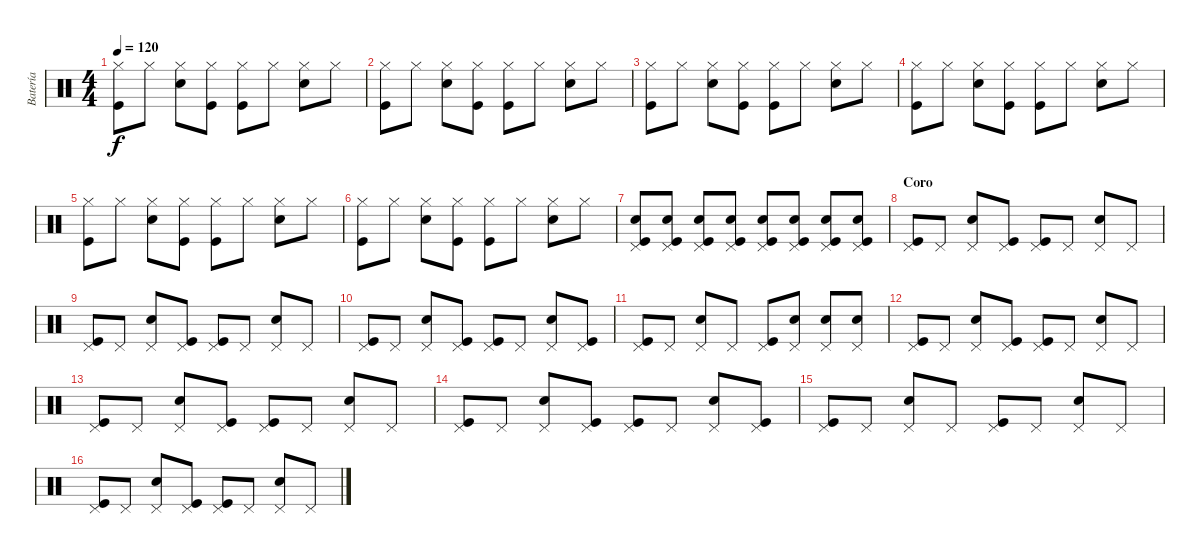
\track ("Batería" "Batería") {instrument percussion}
\staff {score}
\articulation defaults
\ts (4 4)
\tempo 120
\clef neutral
\ks c
("Hi-Hat (closed)" "Kick (hit)").8{dy f} "Hi-Hat (closed)".8 ("Hi-Hat (closed)" "Electric Snare (hit)").8 ("Hi-Hat (closed)" "Kick (hit)").8 ("Hi-Hat (closed)" "Kick (hit)").8 "Hi-Hat (closed)".8 ("Hi-Hat (closed)" "Electric Snare (hit)").8 "Hi-Hat (closed)".8 |
("Hi-Hat (closed)" "Kick (hit)").8 "Hi-Hat (closed)".8 ("Hi-Hat (closed)" "Electric Snare (hit)").8 ("Hi-Hat (closed)" "Kick (hit)").8 ("Hi-Hat (closed)" "Kick (hit)").8 "Hi-Hat (closed)".8 ("Hi-Hat (closed)" "Electric Snare (hit)").8 "Hi-Hat (closed)".8 |
("Hi-Hat (closed)" "Kick (hit)").8 "Hi-Hat (closed)".8 ("Hi-Hat (closed)" "Electric Snare (hit)").8 ("Hi-Hat (closed)" "Kick (hit)").8 ("Hi-Hat (closed)" "Kick (hit)").8 "Hi-Hat (closed)".8 ("Hi-Hat (closed)" "Electric Snare (hit)").8 "Hi-Hat (closed)".8 |
("Hi-Hat (closed)" "Kick (hit)").8 "Hi-Hat (closed)".8 ("Hi-Hat (closed)" "Electric Snare (hit)").8 ("Hi-Hat (closed)" "Kick (hit)").8 ("Hi-Hat (closed)" "Kick (hit)").8 "Hi-Hat (closed)".8 ("Hi-Hat (closed)" "Electric Snare (hit)").8 "Hi-Hat (closed)".8 |
("Hi-Hat (closed)" "Kick (hit)").8 "Hi-Hat (closed)".8 ("Hi-Hat (closed)" "Electric Snare (hit)").8 ("Hi-Hat (closed)" "Kick (hit)").8 ("Hi-Hat (closed)" "Kick (hit)").8 "Hi-Hat (closed)".8 ("Hi-Hat (closed)" "Electric Snare (hit)").8 "Hi-Hat (closed)".8 |
("Hi-Hat (closed)" "Kick (hit)").8 "Hi-Hat (closed)".8 ("Hi-Hat (closed)" "Electric Snare (hit)").8 ("Hi-Hat (closed)" "Kick (hit)").8 ("Hi-Hat (closed)" "Kick (hit)").8 "Hi-Hat (closed)".8 ("Hi-Hat (closed)" "Electric Snare (hit)").8 "Hi-Hat (closed)".8{volume 7} |
("Pedal Hi-Hat (hit)" "Electric Snare (hit)" "Kick (hit)").8{volume 13} ("Pedal Hi-Hat (hit)" "Electric Snare (hit)" "Kick (hit)").8 ("Pedal Hi-Hat (hit)" "Electric Snare (hit)" "Kick (hit)").8 ("Pedal Hi-Hat (hit)" "Electric Snare (hit)" "Kick (hit)").8 ("Pedal Hi-Hat (hit)" "Electric Snare (hit)" "Kick (hit)").8 ("Pedal Hi-Hat (hit)" "Electric Snare (hit)" "Kick (hit)").8 ("Pedal Hi-Hat (hit)" "Electric Snare (hit)" "Kick (hit)").8 ("Pedal Hi-Hat (hit)" "Electric Snare (hit)" "Kick (hit)").8 |
\section ("" "Coro")
("Pedal Hi-Hat (hit)" "Kick (hit)").8 "Pedal Hi-Hat (hit)".8 ("Pedal Hi-Hat (hit)" "Electric Snare (hit)").8 ("Pedal Hi-Hat (hit)" "Kick (hit)").8 ("Pedal Hi-Hat (hit)" "Kick (hit)").8 "Pedal Hi-Hat (hit)".8 ("Pedal Hi-Hat (hit)" "Electric Snare (hit)").8 "Pedal Hi-Hat (hit)".8 |
("Pedal Hi-Hat (hit)" "Kick (hit)").8 "Pedal Hi-Hat (hit)".8 ("Pedal Hi-Hat (hit)" "Electric Snare (hit)").8 ("Pedal Hi-Hat (hit)" "Kick (hit)").8 ("Pedal Hi-Hat (hit)" "Kick (hit)").8 "Pedal Hi-Hat (hit)".8 ("Pedal Hi-Hat (hit)" "Electric Snare (hit)").8 "Pedal Hi-Hat (hit)".8 |
("Pedal Hi-Hat (hit)" "Kick (hit)").8 "Pedal Hi-Hat (hit)".8 ("Pedal Hi-Hat (hit)" "Electric Snare (hit)").8 ("Pedal Hi-Hat (hit)" "Kick (hit)").8 ("Pedal Hi-Hat (hit)" "Kick (hit)").8 "Pedal Hi-Hat (hit)".8 ("Pedal Hi-Hat (hit)" "Electric Snare (hit)").8 ("Pedal Hi-Hat (hit)" "Kick (hit)").8 |
("Pedal Hi-Hat (hit)" "Kick (hit)").8 "Pedal Hi-Hat (hit)".8 ("Pedal Hi-Hat (hit)" "Electric Snare (hit)").8 "Pedal Hi-Hat (hit)".8 ("Pedal Hi-Hat (hit)" "Kick (hit)").8 ("Pedal Hi-Hat (hit)" "Electric Snare (hit)").8 ("Pedal Hi-Hat (hit)" "Electric Snare (hit)").8 ("Pedal Hi-Hat (hit)" "Electric Snare (hit)").8 |
("Pedal Hi-Hat (hit)" "Kick (hit)").8 "Pedal Hi-Hat (hit)".8 ("Pedal Hi-Hat (hit)" "Electric Snare (hit)").8 ("Pedal Hi-Hat (hit)" "Kick (hit)").8 ("Pedal Hi-Hat (hit)" "Kick (hit)").8 "Pedal Hi-Hat (hit)".8 ("Pedal Hi-Hat (hit)" "Electric Snare (hit)").8 "Pedal Hi-Hat (hit)".8 |
("Pedal Hi-Hat (hit)" "Kick (hit)").8 "Pedal Hi-Hat (hit)".8 ("Pedal Hi-Hat (hit)" "Electric Snare (hit)").8 ("Pedal Hi-Hat (hit)" "Kick (hit)").8 ("Pedal Hi-Hat (hit)" "Kick (hit)").8 "Pedal Hi-Hat (hit)".8 ("Pedal Hi-Hat (hit)" "Electric Snare (hit)").8 "Pedal Hi-Hat (hit)".8 |
("Pedal Hi-Hat (hit)" "Kick (hit)").8 "Pedal Hi-Hat (hit)".8 ("Pedal Hi-Hat (hit)" "Electric Snare (hit)").8 ("Pedal Hi-Hat (hit)" "Kick (hit)").8 ("Pedal Hi-Hat (hit)" "Kick (hit)").8 "Pedal Hi-Hat (hit)".8 ("Pedal Hi-Hat (hit)" "Electric Snare (hit)").8 ("Pedal Hi-Hat (hit)" "Kick (hit)").8 |
("Pedal Hi-Hat (hit)" "Kick (hit)").8 "Pedal Hi-Hat (hit)".8 ("Pedal Hi-Hat (hit)" "Electric Snare (hit)").8 "Pedal Hi-Hat (hit)".8 ("Pedal Hi-Hat (hit)" "Kick (hit)").8 "Pedal Hi-Hat (hit)".8 ("Pedal Hi-Hat (hit)" "Electric Snare (hit)").8 "Pedal Hi-Hat (hit)".8 |
("Pedal Hi-Hat (hit)" "Kick (hit)").8 "Pedal Hi-Hat (hit)".8 ("Pedal Hi-Hat (hit)" "Electric Snare (hit)").8 ("Pedal Hi-Hat (hit)" "Kick (hit)").8 ("Pedal Hi-Hat (hit)" "Kick (hit)").8 "Pedal Hi-Hat (hit)".8 ("Pedal Hi-Hat (hit)" "Electric Snare (hit)").8 "Pedal Hi-Hat (hit)".8
